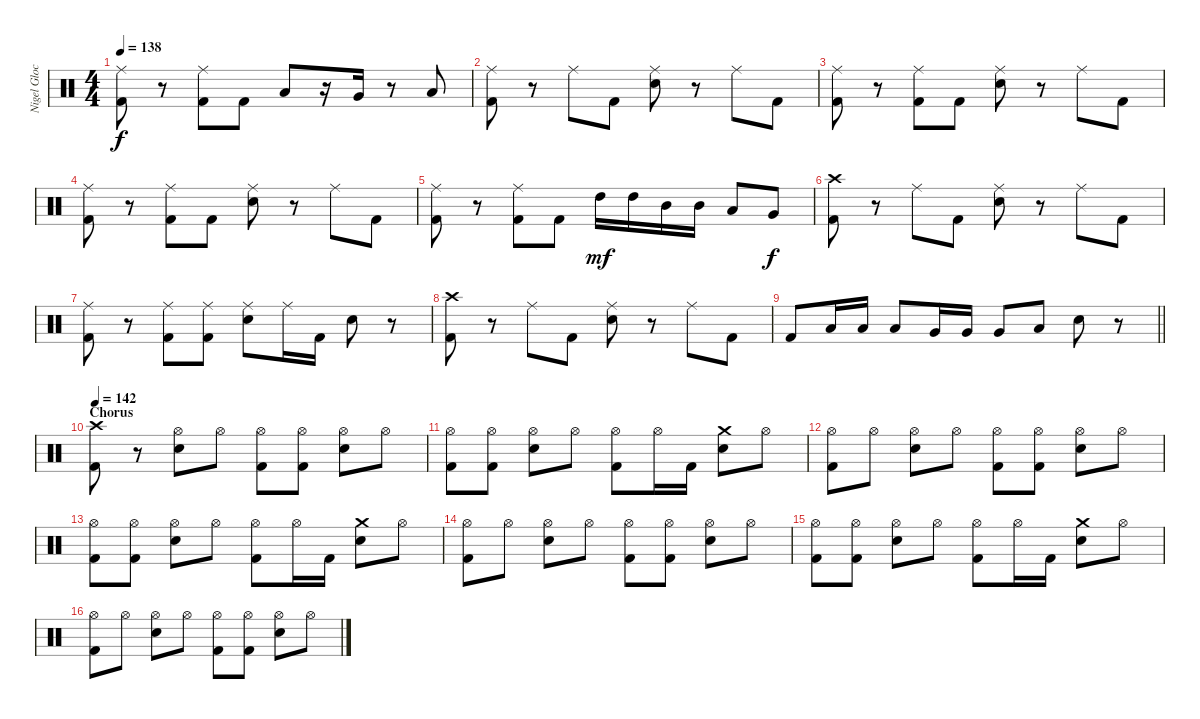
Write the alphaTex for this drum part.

\track ("Nigel Glockler (Drums)" "Nigel Gloc") {instrument percussion}
\staff {score}
\articulation defaults
\ts (4 4)
\tempo 138
\clef neutral
\ks c
("Ride (middle)" "Kick (hit) 2").8{dy f} r.8 ("Ride (middle)" "Kick (hit) 2").8 "Kick (hit) 2".8 "Low Tom (hit)".8 r.16 "Very Low Tom (hit)".16 r.8 "Low Floor Tom (hit)".8 |
("Ride (middle)" "Kick (hit) 2").8 r.8 "Ride (middle)".8 "Kick (hit) 2".8 ("Ride (middle)" "Snare (hit) 2").8 r.8 "Ride (middle)".8 "Kick (hit) 2".8 |
("Ride (middle)" "Kick (hit) 2").8 r.8 ("Ride (middle)" "Kick (hit) 2").8 "Kick (hit) 2".8 ("Ride (middle)" "Snare (hit) 2").8 r.8 "Ride (middle)".8 "Kick (hit) 2".8 |
("Ride (middle)" "Kick (hit) 2").8 r.8 ("Ride (middle)" "Kick (hit) 2").8 "Kick (hit) 2".8 ("Ride (middle)" "Snare (hit) 2").8 r.8 "Ride (middle)".8 "Kick (hit) 2".8 |
("Ride (middle)" "Kick (hit) 2").8 r.8 ("Ride (middle)" "Kick (hit) 2").8 "Kick (hit) 2".8 "High Tom (hit)".16{dy mf} "High Tom (hit)".16 "Mid Tom (hit)".16 "Mid Tom (hit)".16 "Low Tom (hit)".8 "Very Low Tom (hit)".8{dy f} |
("Crash high (hit)" "Kick (hit) 2").8 r.8 "Ride (middle)".8 "Kick (hit) 2".8 ("Ride (middle)" "Snare (hit) 2").8 r.8 "Ride (middle)".8 "Kick (hit) 2".8 |
("Ride (middle)" "Kick (hit) 2").8 r.8 ("Ride (middle)" "Kick (hit) 2").8 ("Ride (middle)" "Kick (hit) 2").8 ("Ride (middle)" "Snare (hit) 2").8 "Ride (middle)".16 "Kick (hit) 2".16 "Snare (hit) 2".8 r.8 |
("Crash high (hit)" "Kick (hit) 2").8 r.8 "Ride (middle)".8 "Kick (hit) 2".8 ("Ride (middle)" "Snare (hit) 2").8 r.8 "Ride (middle)".8 "Kick (hit) 2".8 |
\barLineRight lightlight "Kick (hit) 2".8 "Low Tom (hit)".16 "Low Tom (hit)".16 "Low Tom (hit)".8 "Very Low Tom (hit)".16 "Very Low Tom (hit)".16 "Very Low Tom (hit)".8 "Low Floor Tom (hit)".8 "Snare (hit) 2".8
r.8 |
\section ("" "Chorus")
\tempo 142
("Crash high (hit)" "Kick (hit) 2").8 r.8 ("Hi-Hat (open)" "Snare (hit) 2").8 "Hi-Hat (open)".8 ("Hi-Hat (open)" "Kick (hit) 2").8 ("Hi-Hat (open)" "Kick (hit) 2").8 ("Hi-Hat (open)" "Snare (hit) 2").8 "Hi-Hat (open)".8 |
("Hi-Hat (open)" "Kick (hit) 2").8 ("Hi-Hat (open)" "Kick (hit) 2").8 ("Hi-Hat (open)" "Snare (hit) 2").8 "Hi-Hat (open)".8 ("Hi-Hat (open)" "Kick (hit) 2").8 "Hi-Hat (open)".16 "Kick (hit) 2".16 ("Crash medium (hit)" "Snare (hit) 2").8 "Hi-Hat (open)".8 |
("Hi-Hat (open)" "Kick (hit) 2").8 "Hi-Hat (open)".8 ("Hi-Hat (open)" "Snare (hit) 2").8 "Hi-Hat (open)".8 ("Hi-Hat (open)" "Kick (hit) 2").8 ("Hi-Hat (open)" "Kick (hit) 2").8 ("Hi-Hat (open)" "Snare (hit) 2").8 "Hi-Hat (open)".8 |
("Hi-Hat (open)" "Kick (hit) 2").8 ("Hi-Hat (open)" "Kick (hit) 2").8 ("Hi-Hat (open)" "Snare (hit) 2").8 "Hi-Hat (open)".8 ("Hi-Hat (open)" "Kick (hit) 2").8 "Hi-Hat (open)".16 "Kick (hit) 2".16 ("Crash medium (hit)" "Snare (hit) 2").8 "Hi-Hat (open)".8 |
("Hi-Hat (open)" "Kick (hit) 2").8 "Hi-Hat (open)".8 ("Hi-Hat (open)" "Snare (hit) 2").8 "Hi-Hat (open)".8 ("Hi-Hat (open)" "Kick (hit) 2").8 ("Hi-Hat (open)" "Kick (hit) 2").8 ("Hi-Hat (open)" "Snare (hit) 2").8 "Hi-Hat (open)".8 |
("Hi-Hat (open)" "Kick (hit) 2").8 ("Hi-Hat (open)" "Kick (hit) 2").8 ("Hi-Hat (open)" "Snare (hit) 2").8 "Hi-Hat (open)".8 ("Hi-Hat (open)" "Kick (hit) 2").8 "Hi-Hat (open)".16 "Kick (hit) 2".16 ("Crash medium (hit)" "Snare (hit) 2").8 "Hi-Hat (open)".8 |
("Hi-Hat (open)" "Kick (hit) 2").8 "Hi-Hat (open)".8 ("Hi-Hat (open)" "Snare (hit) 2").8 "Hi-Hat (open)".8 ("Hi-Hat (open)" "Kick (hit) 2").8 ("Hi-Hat (open)" "Kick (hit) 2").8 ("Hi-Hat (open)" "Snare (hit) 2").8 "Hi-Hat (open)".8
